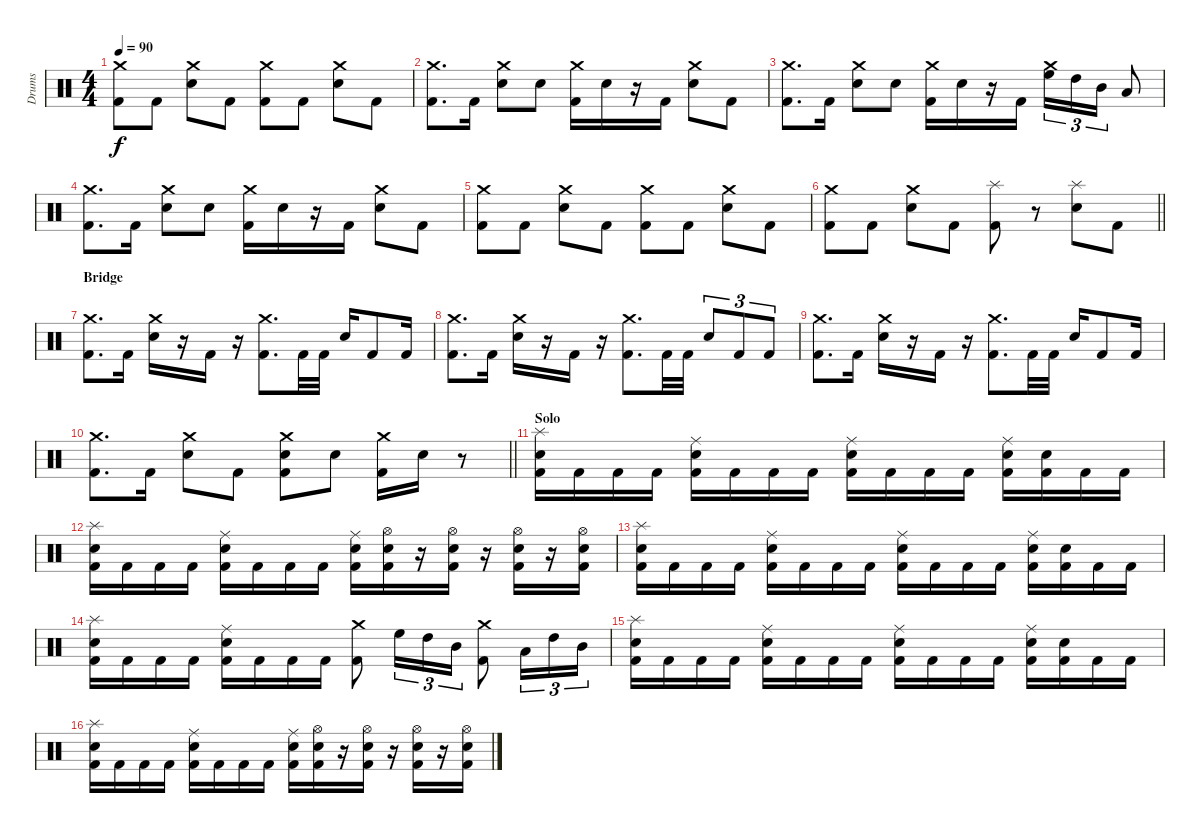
\track ("Drums" "Drums") {instrument percussion}
\staff {score}
\articulation defaults
\ts (4 4)
\tempo 90
\clef neutral
\ks c
("Crash medium (hit)" "Kick (hit) 2").8{dy f} "Kick (hit) 2".8 ("Crash medium (hit)" "Electric Snare (hit)").8 "Kick (hit) 2".8 ("Crash medium (hit)" "Kick (hit) 2").8 "Kick (hit) 2".8 ("Crash medium (hit)" "Electric Snare (hit)").8 "Kick (hit) 2".8 |
("Crash medium (hit)" "Kick (hit) 2").8{d} "Kick (hit) 2".16 ("Crash medium (hit)" "Electric Snare (hit)").8 "Electric Snare (hit)".8 ("Crash medium (hit)" "Kick (hit) 2").16 "Electric Snare (hit)".16 r.16 "Kick (hit) 2".16 ("Crash medium (hit)" "Electric Snare (hit)").8 "Kick (hit) 2".8 |
("Crash medium (hit)" "Kick (hit) 2").8{d} "Kick (hit) 2".16 ("Crash medium (hit)" "Electric Snare (hit)").8 "Electric Snare (hit)".8 ("Crash medium (hit)" "Kick (hit) 2").16 "Electric Snare (hit)".16 r.16 "Kick (hit) 2".16 ("Crash medium (hit)" "High Floor Tom (hit)").16{tu (3 2)} "High Tom (hit)".16{tu (3 2)} "Mid Tom (hit)".16{tu (3 2)} "Low Tom (hit)".8 |
("Crash medium (hit)" "Kick (hit) 2").8{d} "Kick (hit) 2".16 ("Crash medium (hit)" "Electric Snare (hit)").8 "Electric Snare (hit)".8 ("Crash medium (hit)" "Kick (hit) 2").16 "Electric Snare (hit)".16 r.16 "Kick (hit) 2".16 ("Crash medium (hit)" "Electric Snare (hit)").8 "Kick (hit) 2".8 |
("Crash medium (hit)" "Kick (hit) 2").8 "Kick (hit) 2".8 ("Crash medium (hit)" "Electric Snare (hit)").8 "Kick (hit) 2".8 ("Crash medium (hit)" "Kick (hit) 2").8 "Kick (hit) 2".8 ("Crash medium (hit)" "Electric Snare (hit)").8 "Kick (hit) 2".8 |
\barLineRight lightlight
("Crash medium (hit)" "Kick (hit) 2").8 "Kick (hit) 2".8 ("Crash medium (hit)" "Electric Snare (hit)").8 "Kick (hit) 2".8 ("Splash (hit)" "Kick (hit) 2").8 r.8 ("Splash (hit)" "Electric Snare (hit)").8 "Kick (hit) 2".8 |
\section ("" "Bridge")
("Crash medium (hit)" "Kick (hit) 2").8{d} "Kick (hit) 2".16 ("Crash medium (hit)" "Electric Snare (hit)").16 r.16 "Kick (hit) 2".16 r.16 ("Crash medium (hit)" "Kick (hit) 2").8{d} "Kick (hit) 2".32 "Kick (hit) 2".32 "Electric Snare (hit)".16 "Kick (hit) 2".8 "Kick (hit) 2".16 |
("Crash medium (hit)" "Kick (hit) 2").8{d} "Kick (hit) 2".16 ("Crash medium (hit)" "Electric Snare (hit)").16 r.16 "Kick (hit) 2".16 r.16 ("Crash medium (hit)" "Kick (hit) 2").8{d} "Kick (hit) 2".32 "Kick (hit) 2".32 "Electric Snare (hit)".8{tu (3 2)} "Kick (hit) 2".8{tu (3 2)} "Kick (hit) 2".8{tu (3 2)} |
("Crash medium (hit)" "Kick (hit) 2").8{d} "Kick (hit) 2".16 ("Crash medium (hit)" "Electric Snare (hit)").16 r.16 "Kick (hit) 2".16 r.16 ("Crash medium (hit)" "Kick (hit) 2").8{d} "Kick (hit) 2".32 "Kick (hit) 2".32 "Electric Snare (hit)".16 "Kick (hit) 2".8 "Kick (hit) 2".16 |
\barLineRight lightlight
("Crash medium (hit)" "Kick (hit) 2").8{d} "Kick (hit) 2".16 ("Crash medium (hit)" "Electric Snare (hit)").8 "Kick (hit) 2".8 ("Crash medium (hit)" "Electric Snare (hit)" "Kick (hit) 2").8 "Electric Snare (hit)".8 ("Crash medium (hit)" "Kick (hit) 2").16 "Electric Snare (hit)".16 r.8 |
\section ("" "Solo")
("Splash (hit)" "Electric Snare (hit)" "Kick (hit) 2").16 "Kick (hit) 2".16 "Kick (hit) 2".16 "Kick (hit) 2".16 ("Ride (middle)" "Electric Snare (hit)" "Kick (hit) 2").16 "Kick (hit) 2".16 "Kick (hit) 2".16 "Kick (hit) 2".16 ("Ride (middle)" "Electric Snare (hit)" "Kick (hit) 2").16 "Kick (hit) 2".16 "Kick (hit) 2".16 "Kick (hit) 2".16 ("Ride (middle)" "Electric Snare (hit)" "Kick (hit) 2").16 ("Electric Snare (hit)" "Kick (hit) 2").16 "Kick (hit) 2".16 "Kick (hit) 2".16 |
("Splash (hit)" "Electric Snare (hit)" "Kick (hit) 2").16 "Kick (hit) 2".16 "Kick (hit) 2".16 "Kick (hit) 2".16 ("Ride (middle)" "Electric Snare (hit)" "Kick (hit) 2").16 "Kick (hit) 2".16 "Kick (hit) 2".16 "Kick (hit) 2".16 ("Ride (middle)" "Electric Snare (hit)" "Kick (hit) 2").16 ("Hi-Hat (open)" "Kick (hit) 2" "Electric Snare (hit)").16 r.16 ("Hi-Hat (open)" "Kick (hit) 2" "Electric Snare (hit)").16 r.16 ("Hi-Hat (open)" "Kick (hit) 2" "Electric Snare (hit)").16 r.16 ("Hi-Hat (open)" "Kick (hit) 2" "Electric Snare (hit)").16 |
("Splash (hit)" "Electric Snare (hit)" "Kick (hit) 2").16 "Kick (hit) 2".16 "Kick (hit) 2".16 "Kick (hit) 2".16 ("Ride (middle)" "Electric Snare (hit)" "Kick (hit) 2").16 "Kick (hit) 2".16 "Kick (hit) 2".16 "Kick (hit) 2".16 ("Ride (middle)" "Electric Snare (hit)" "Kick (hit) 2").16 "Kick (hit) 2".16 "Kick (hit) 2".16 "Kick (hit) 2".16 ("Ride (middle)" "Electric Snare (hit)" "Kick (hit) 2").16 ("Electric Snare (hit)" "Kick (hit) 2").16 "Kick (hit) 2".16 "Kick (hit) 2".16 |
("Splash (hit)" "Electric Snare (hit)" "Kick (hit) 2").16 "Kick (hit) 2".16 "Kick (hit) 2".16 "Kick (hit) 2".16 ("Ride (middle)" "Electric Snare (hit)" "Kick (hit) 2").16 "Kick (hit) 2".16 "Kick (hit) 2".16 "Kick (hit) 2".16 ("Crash medium (hit)" "Kick (hit) 2").8 "High Floor Tom (hit)".16{tu (3 2)} "High Tom (hit)".16{tu (3 2)} "Mid Tom (hit)".16{tu (3 2)} ("Crash medium (hit)" "Kick (hit) 2").8 "Low Tom (hit)".16{tu (3 2)} "High Tom (hit)".16{tu (3 2)} "Mid Tom (hit)".16{tu (3 2)} |
("Splash (hit)" "Electric Snare (hit)" "Kick (hit) 2").16 "Kick (hit) 2".16 "Kick (hit) 2".16 "Kick (hit) 2".16 ("Ride (middle)" "Electric Snare (hit)" "Kick (hit) 2").16 "Kick (hit) 2".16 "Kick (hit) 2".16 "Kick (hit) 2".16 ("Ride (middle)" "Electric Snare (hit)" "Kick (hit) 2").16 "Kick (hit) 2".16 "Kick (hit) 2".16 "Kick (hit) 2".16 ("Ride (middle)" "Electric Snare (hit)" "Kick (hit) 2").16 ("Electric Snare (hit)" "Kick (hit) 2").16 "Kick (hit) 2".16 "Kick (hit) 2".16 |
("Splash (hit)" "Electric Snare (hit)" "Kick (hit) 2").16 "Kick (hit) 2".16 "Kick (hit) 2".16 "Kick (hit) 2".16 ("Ride (middle)" "Electric Snare (hit)" "Kick (hit) 2").16 "Kick (hit) 2".16 "Kick (hit) 2".16 "Kick (hit) 2".16 ("Ride (middle)" "Electric Snare (hit)" "Kick (hit) 2").16 ("Hi-Hat (open)" "Kick (hit) 2" "Electric Snare (hit)").16 r.16 ("Hi-Hat (open)" "Kick (hit) 2" "Electric Snare (hit)").16 r.16 ("Hi-Hat (open)" "Kick (hit) 2" "Electric Snare (hit)").16 r.16 ("Hi-Hat (open)" "Kick (hit) 2" "Electric Snare (hit)").16
